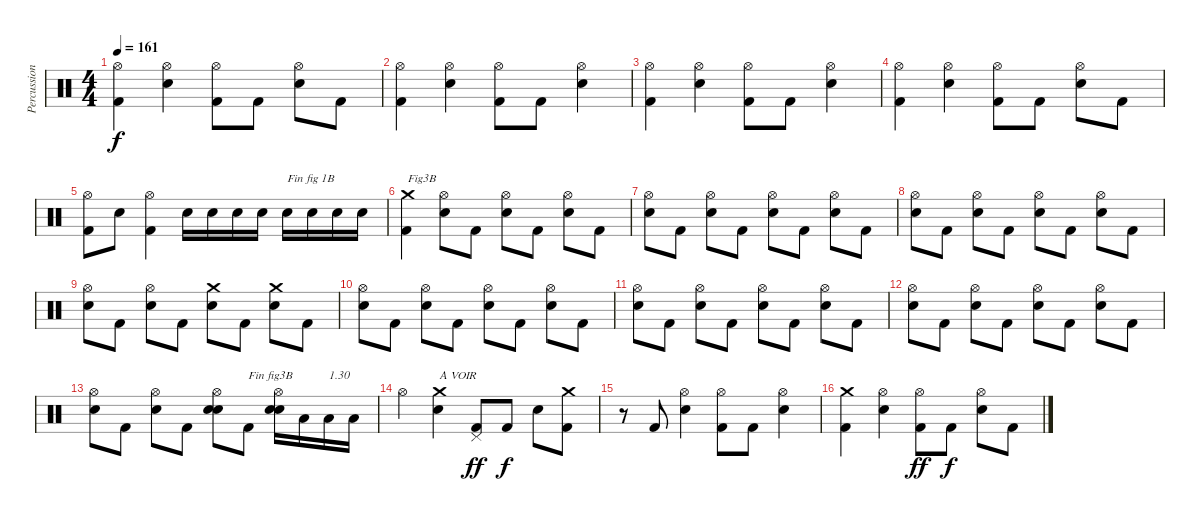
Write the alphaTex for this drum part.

\track ("Percussions" "Percussion") {instrument percussion}
\staff {score}
\articulation defaults
\ts (4 4)
\tempo 161
\clef neutral
\ks c
("Kick (hit) 2" "Hi-Hat (open)").4{dy f} ("Electric Snare (hit)" "Hi-Hat (open)").4 ("Kick (hit) 2" "Hi-Hat (open)").8 "Kick (hit) 2".8 ("Electric Snare (hit)" "Hi-Hat (open)").8 "Kick (hit) 2".8 |
("Kick (hit) 2" "Hi-Hat (open)").4 ("Electric Snare (hit)" "Hi-Hat (open)").4 ("Kick (hit) 2" "Hi-Hat (open)").8 "Kick (hit) 2".8 ("Electric Snare (hit)" "Hi-Hat (open)").4 |
("Kick (hit) 2" "Hi-Hat (open)").4 ("Electric Snare (hit)" "Hi-Hat (open)").4 ("Kick (hit) 2" "Hi-Hat (open)").8 "Kick (hit) 2".8 ("Electric Snare (hit)" "Hi-Hat (open)").4 |
("Kick (hit) 2" "Hi-Hat (open)").4 ("Electric Snare (hit)" "Hi-Hat (open)").4 ("Kick (hit) 2" "Hi-Hat (open)").8 "Kick (hit) 2".8 ("Electric Snare (hit)" "Hi-Hat (open)").8 "Kick (hit) 2".8 |
("Kick (hit) 2" "Hi-Hat (open)").8 "Electric Snare (hit)".8 ("Kick (hit) 2" "Hi-Hat (open)").4 "Electric Snare (hit)".16 "Electric Snare (hit)".16 "Electric Snare (hit)".16 "Electric Snare (hit)".16 "Electric Snare (hit)".16{txt "Fin fig 1B"} "Electric Snare (hit)".16 "Electric Snare (hit)".16 "Electric Snare (hit)".16 |
("Kick (hit) 2" "Crash medium (hit)").4{txt "Fig3B"} ("Electric Snare (hit)" "Hi-Hat (open)").8 "Kick (hit) 2".8 ("Electric Snare (hit)" "Hi-Hat (open)").8 "Kick (hit) 2".8 ("Electric Snare (hit)" "Hi-Hat (open)").8 "Kick (hit) 2".8 |
("Electric Snare (hit)" "Hi-Hat (open)").8 "Kick (hit) 2".8 ("Electric Snare (hit)" "Hi-Hat (open)").8 "Kick (hit) 2".8 ("Electric Snare (hit)" "Hi-Hat (open)").8 "Kick (hit) 2".8 ("Electric Snare (hit)" "Hi-Hat (open)").8 "Kick (hit) 2".8 |
("Electric Snare (hit)" "Hi-Hat (open)").8 "Kick (hit) 2".8 ("Electric Snare (hit)" "Hi-Hat (open)").8 "Kick (hit) 2".8 ("Electric Snare (hit)" "Hi-Hat (open)").8 "Kick (hit) 2".8 ("Electric Snare (hit)" "Hi-Hat (open)").8 "Kick (hit) 2".8 |
("Electric Snare (hit)" "Hi-Hat (open)").8 "Kick (hit) 2".8 ("Electric Snare (hit)" "Hi-Hat (open)").8 "Kick (hit) 2".8 ("Electric Snare (hit)" "Crash medium (hit)").8 "Kick (hit) 2".8 ("Electric Snare (hit)" "Crash medium (hit)").8 "Kick (hit) 2".8 |
("Electric Snare (hit)" "Hi-Hat (open)").8 "Kick (hit) 2".8 ("Electric Snare (hit)" "Hi-Hat (open)").8 "Kick (hit) 2".8 ("Electric Snare (hit)" "Hi-Hat (open)").8 "Kick (hit) 2".8 ("Electric Snare (hit)" "Hi-Hat (open)").8 "Kick (hit) 2".8 |
("Electric Snare (hit)" "Hi-Hat (open)").8 "Kick (hit) 2".8 ("Electric Snare (hit)" "Hi-Hat (open)").8 "Kick (hit) 2".8 ("Electric Snare (hit)" "Hi-Hat (open)").8 "Kick (hit) 2".8 ("Electric Snare (hit)" "Hi-Hat (open)").8 "Kick (hit) 2".8 |
("Electric Snare (hit)" "Hi-Hat (open)").8 "Kick (hit) 2".8 ("Electric Snare (hit)" "Hi-Hat (open)").8 "Kick (hit) 2".8 ("Electric Snare (hit)" "Hi-Hat (open)").8 "Kick (hit) 2".8 ("Electric Snare (hit)" "Hi-Hat (open)").8 "Kick (hit) 2".8 |
("Electric Snare (hit)" "Hi-Hat (open)").8 "Kick (hit) 2".8 ("Electric Snare (hit)" "Hi-Hat (open)").8 "Kick (hit) 2".8 ("Electric Snare (hit)" "Electric Snare (hit)" "Hi-Hat (open)").8 "Kick (hit) 2".8{txt "Fin fig3B"} ("Electric Snare (hit)" "Electric Snare (hit)" "Hi-Hat (open)").16 "Low Floor Tom (hit)".16 "Low Floor Tom (hit)".16{txt "1.30"} "Low Floor Tom (hit)".16 |
"Hi-Hat (open)".4 ("Electric Snare (hit)" "Crash medium (hit)").4{txt "A VOIR"} ("Kick (hit) 2" "Pedal Hi-Hat (hit)").8{dy ff} "Kick (hit) 2".8{dy f} "Electric Snare (hit)".8 ("Kick (hit) 2" "Crash medium (hit)").8 |
r.8 "Kick (hit) 2".8 ("Electric Snare (hit)" "Hi-Hat (open)").4 ("Kick (hit) 2" "Hi-Hat (open)").8 "Kick (hit) 2".8 ("Electric Snare (hit)" "Hi-Hat (open)").4 |
("Kick (hit) 2" "Crash medium (hit)").4 ("Electric Snare (hit)" "Hi-Hat (open)").4 ("Kick (hit) 2" "Hi-Hat (open)").8{dy ff} "Kick (hit) 2".8{dy f} ("Electric Snare (hit)" "Hi-Hat (open)").8 "Kick (hit) 2".8
